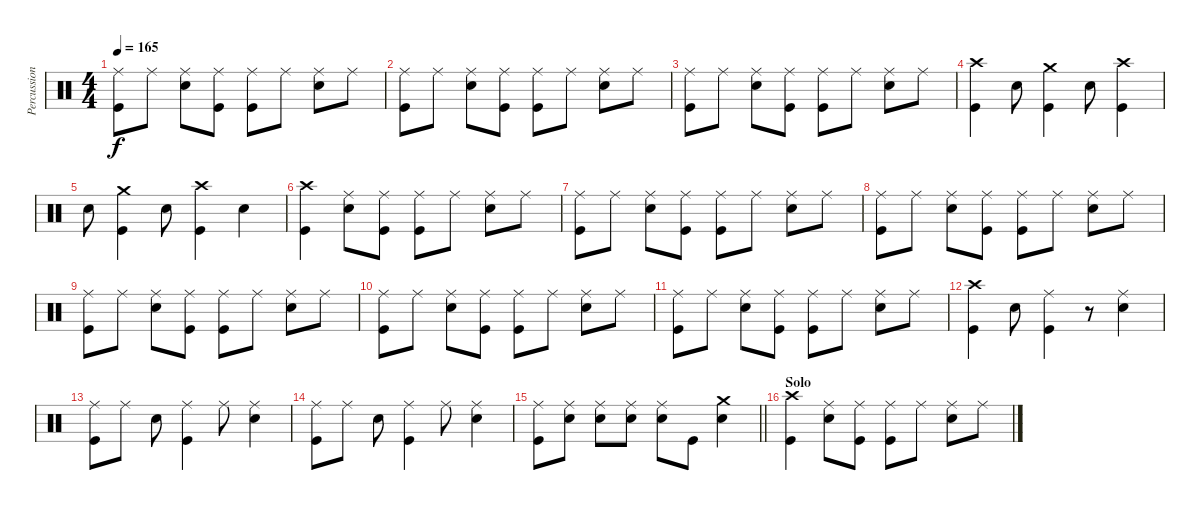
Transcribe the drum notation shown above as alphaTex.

\track ("Percussion" "Percussion") {instrument percussion}
\staff {score}
\articulation defaults
\ts (4 4)
\tempo 165
\clef neutral
\ks c
("Kick (hit)" "Ride (middle)").8{dy f} "Ride (middle)".8 ("Ride (middle)" "Snare (hit) 2").8 ("Kick (hit)" "Ride (middle)").8 ("Kick (hit)" "Ride (middle)").8 "Ride (middle)".8 ("Ride (middle)" "Snare (hit) 2").8 "Ride (middle)".8 |
("Kick (hit)" "Ride (middle)").8 "Ride (middle)".8 ("Ride (middle)" "Snare (hit) 2").8 ("Kick (hit)" "Ride (middle)").8 ("Kick (hit)" "Ride (middle)").8 "Ride (middle)".8 ("Ride (middle)" "Snare (hit) 2").8 "Ride (middle)".8 |
("Kick (hit)" "Ride (middle)").8 "Ride (middle)".8 ("Ride (middle)" "Snare (hit) 2").8 ("Kick (hit)" "Ride (middle)").8 ("Kick (hit)" "Ride (middle)").8 "Ride (middle)".8 ("Ride (middle)" "Snare (hit) 2").8 "Ride (middle)".8 |
("Kick (hit)" "Crash high (hit)").4 "Snare (hit) 2".8 ("Kick (hit)" "Crash medium (hit)").4 "Snare (hit) 2".8 ("Kick (hit)" "Crash high (hit)").4 |
"Snare (hit) 2".8 ("Kick (hit)" "Crash medium (hit)").4 "Snare (hit) 2".8 ("Kick (hit)" "Crash high (hit)").4 "Snare (hit) 2".4 |
("Kick (hit)" "Crash high (hit)").4 ("Ride (middle)" "Snare (hit) 2").8 ("Kick (hit)" "Ride (middle)").8 ("Kick (hit)" "Ride (middle)").8 "Ride (middle)".8 ("Ride (middle)" "Snare (hit) 2").8 "Ride (middle)".8 |
("Kick (hit)" "Ride (middle)").8 "Ride (middle)".8 ("Ride (middle)" "Snare (hit) 2").8 ("Kick (hit)" "Ride (middle)").8 ("Kick (hit)" "Ride (middle)").8 "Ride (middle)".8 ("Ride (middle)" "Snare (hit) 2").8 "Ride (middle)".8 |
("Kick (hit)" "Ride (middle)").8 "Ride (middle)".8 ("Ride (middle)" "Snare (hit) 2").8 ("Kick (hit)" "Ride (middle)").8 ("Kick (hit)" "Ride (middle)").8 "Ride (middle)".8 ("Ride (middle)" "Snare (hit) 2").8 "Ride (middle)".8 |
("Kick (hit)" "Ride (middle)").8 "Ride (middle)".8 ("Ride (middle)" "Snare (hit) 2").8 ("Kick (hit)" "Ride (middle)").8 ("Kick (hit)" "Ride (middle)").8 "Ride (middle)".8 ("Ride (middle)" "Snare (hit) 2").8 "Ride (middle)".8 |
("Kick (hit)" "Ride (middle)").8 "Ride (middle)".8 ("Ride (middle)" "Snare (hit) 2").8 ("Kick (hit)" "Ride (middle)").8 ("Kick (hit)" "Ride (middle)").8 "Ride (middle)".8 ("Ride (middle)" "Snare (hit) 2").8 "Ride (middle)".8 |
("Kick (hit)" "Ride (middle)").8 "Ride (middle)".8 ("Ride (middle)" "Snare (hit) 2").8 ("Kick (hit)" "Ride (middle)").8 ("Kick (hit)" "Ride (middle)").8 "Ride (middle)".8 ("Ride (middle)" "Snare (hit) 2").8 "Ride (middle)".8 |
("Kick (hit)" "Crash high (hit)").4 "Snare (hit) 2".8 ("Kick (hit)" "Ride (middle)").4 r.8 ("Ride (middle)" "Snare (hit) 2").4 |
("Kick (hit)" "Ride (middle)").8 "Ride (middle)".8 "Snare (hit) 2".8 ("Kick (hit)" "Ride (middle)").4 "Ride (middle)".8 ("Ride (middle)" "Snare (hit) 2").4 |
("Kick (hit)" "Ride (middle)").8 "Ride (middle)".8 "Snare (hit) 2".8 ("Kick (hit)" "Ride (middle)").4 "Ride (middle)".8 ("Ride (middle)" "Snare (hit) 2").4 |
\barLineRight lightlight
("Kick (hit)" "Ride (middle)").8 ("Ride (middle)" "Snare (hit) 2").8 ("Ride (middle)" "Snare (hit) 2").8 ("Ride (middle)" "Snare (hit) 2").8 ("Ride (middle)" "Snare (hit) 2").8 "Kick (hit)".8 ("Crash medium (hit)" "Snare (hit) 2").4 |
\section ("" "Solo")
("Kick (hit)" "Crash high (hit)").4 ("Ride (middle)" "Snare (hit) 2").8 ("Kick (hit)" "Ride (middle)").8 ("Kick (hit)" "Ride (middle)").8 "Ride (middle)".8 ("Ride (middle)" "Snare (hit) 2").8 "Ride (middle)".8
